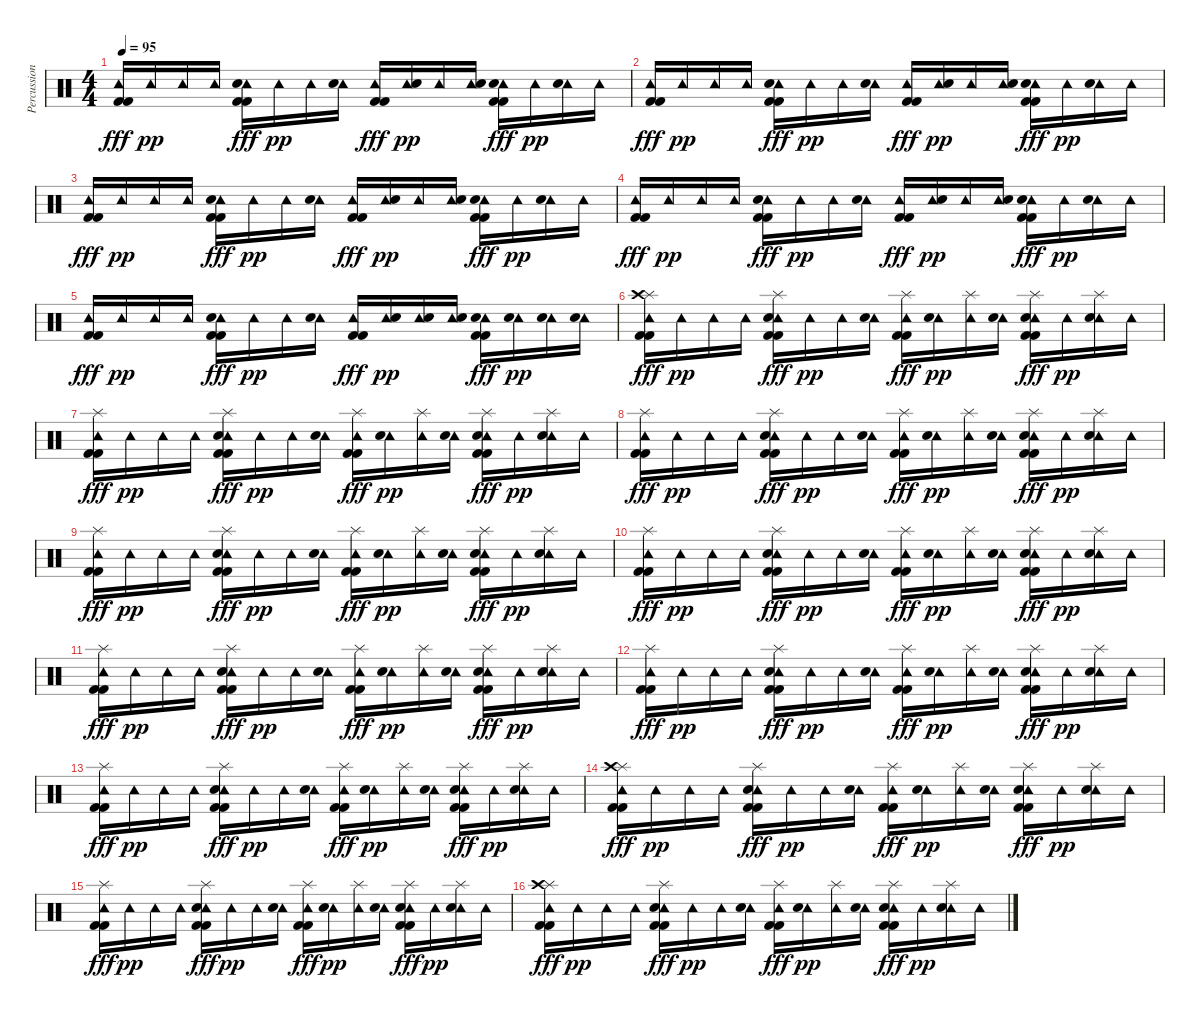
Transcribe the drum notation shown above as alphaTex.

\track ("Percussion" "Percussion") {instrument percussion}
\staff {score}
\articulation defaults
\ts (4 4)
\tempo 95
\clef neutral
\ks c
("Tambourine (hit)" "Kick (hit) 2" "Kick (hit) 2").16{dy fff} "Tambourine (hit)".16{dy pp} "Tambourine (hit)".16 "Tambourine (hit)".16 ("Tambourine (hit)" "Electric Snare (hit)" "Kick (hit) 2" "Kick (hit) 2").16{dy fff} "Tambourine (hit)".16{dy pp} "Tambourine (hit)".16 ("Tambourine (hit)" "Electric Snare (hit)").16 ("Tambourine (hit)" "Kick (hit) 2" "Kick (hit) 2").16{dy fff} ("Tambourine (hit)" "Electric Snare (hit)").16{dy pp} "Tambourine (hit)".16 ("Tambourine (hit)" "Electric Snare (hit)").16 ("Tambourine (hit)" "Electric Snare (hit)" "Kick (hit) 2" "Kick (hit) 2").16{dy fff} "Tambourine (hit)".16{dy pp} ("Tambourine (hit)" "Electric Snare (hit)").16 "Tambourine (hit)".16 |
("Tambourine (hit)" "Kick (hit) 2" "Kick (hit) 2").16{dy fff} "Tambourine (hit)".16{dy pp} "Tambourine (hit)".16 "Tambourine (hit)".16 ("Tambourine (hit)" "Electric Snare (hit)" "Kick (hit) 2" "Kick (hit) 2").16{dy fff} "Tambourine (hit)".16{dy pp} "Tambourine (hit)".16 ("Tambourine (hit)" "Electric Snare (hit)").16 ("Tambourine (hit)" "Kick (hit) 2" "Kick (hit) 2").16{dy fff} ("Tambourine (hit)" "Electric Snare (hit)").16{dy pp} "Tambourine (hit)".16 ("Tambourine (hit)" "Electric Snare (hit)").16 ("Tambourine (hit)" "Electric Snare (hit)" "Kick (hit) 2" "Kick (hit) 2").16{dy fff} "Tambourine (hit)".16{dy pp} ("Tambourine (hit)" "Electric Snare (hit)").16 "Tambourine (hit)".16 |
("Tambourine (hit)" "Kick (hit) 2" "Kick (hit) 2").16{dy fff} "Tambourine (hit)".16{dy pp} "Tambourine (hit)".16 "Tambourine (hit)".16 ("Tambourine (hit)" "Electric Snare (hit)" "Kick (hit) 2" "Kick (hit) 2").16{dy fff} "Tambourine (hit)".16{dy pp} "Tambourine (hit)".16 ("Tambourine (hit)" "Electric Snare (hit)").16 ("Tambourine (hit)" "Kick (hit) 2" "Kick (hit) 2").16{dy fff} ("Tambourine (hit)" "Electric Snare (hit)").16{dy pp} "Tambourine (hit)".16 ("Tambourine (hit)" "Electric Snare (hit)").16 ("Tambourine (hit)" "Electric Snare (hit)" "Kick (hit) 2" "Kick (hit) 2").16{dy fff} "Tambourine (hit)".16{dy pp} ("Tambourine (hit)" "Electric Snare (hit)").16 "Tambourine (hit)".16 |
("Tambourine (hit)" "Kick (hit) 2" "Kick (hit) 2").16{dy fff} "Tambourine (hit)".16{dy pp} "Tambourine (hit)".16 "Tambourine (hit)".16 ("Tambourine (hit)" "Electric Snare (hit)" "Kick (hit) 2" "Kick (hit) 2").16{dy fff} "Tambourine (hit)".16{dy pp} "Tambourine (hit)".16 ("Tambourine (hit)" "Electric Snare (hit)").16 ("Tambourine (hit)" "Kick (hit) 2" "Kick (hit) 2").16{dy fff} ("Tambourine (hit)" "Electric Snare (hit)").16{dy pp} "Tambourine (hit)".16 ("Tambourine (hit)" "Electric Snare (hit)").16 ("Tambourine (hit)" "Electric Snare (hit)" "Kick (hit) 2" "Kick (hit) 2").16{dy fff} "Tambourine (hit)".16{dy pp} ("Tambourine (hit)" "Electric Snare (hit)").16 "Tambourine (hit)".16 |
("Tambourine (hit)" "Kick (hit) 2" "Kick (hit) 2").16{dy fff} "Tambourine (hit)".16{dy pp} "Tambourine (hit)".16 "Tambourine (hit)".16 ("Tambourine (hit)" "Electric Snare (hit)" "Kick (hit) 2" "Kick (hit) 2").16{dy fff} "Tambourine (hit)".16{dy pp} "Tambourine (hit)".16 ("Tambourine (hit)" "Electric Snare (hit)").16 ("Tambourine (hit)" "Kick (hit) 2" "Kick (hit) 2").16{dy fff} ("Tambourine (hit)" "Electric Snare (hit)").16{dy pp} ("Tambourine (hit)" "Electric Snare (hit)").16 ("Tambourine (hit)" "Electric Snare (hit)").16 ("Tambourine (hit)" "Electric Snare (hit)" "Kick (hit) 2" "Kick (hit) 2").16{dy fff} ("Tambourine (hit)" "Electric Snare (hit)").16{dy pp} ("Tambourine (hit)" "Electric Snare (hit)").16 ("Tambourine (hit)" "Electric Snare (hit)").16 |
("Tambourine (hit)" "Splash (hit)" "Crash high (hit)" "Kick (hit) 2" "Kick (hit) 2").16{dy fff} "Tambourine (hit)".16{dy pp} "Tambourine (hit)".16 "Tambourine (hit)".16 ("Tambourine (hit)" "Splash (hit)" "Electric Snare (hit)" "Kick (hit) 2" "Kick (hit) 2").16{dy fff} "Tambourine (hit)".16{dy pp} "Tambourine (hit)".16 ("Tambourine (hit)" "Electric Snare (hit)").16 ("Tambourine (hit)" "Splash (hit)" "Kick (hit) 2" "Kick (hit) 2").16{dy fff} ("Tambourine (hit)" "Electric Snare (hit)").16{dy pp} ("Tambourine (hit)" "Splash (hit)").16 ("Tambourine (hit)" "Electric Snare (hit)").16 ("Tambourine (hit)" "Splash (hit)" "Electric Snare (hit)" "Kick (hit) 2" "Kick (hit) 2").16{dy fff} "Tambourine (hit)".16{dy pp} ("Tambourine (hit)" "Splash (hit)" "Electric Snare (hit)").16 "Tambourine (hit)".16 |
("Tambourine (hit)" "Splash (hit)" "Kick (hit) 2" "Kick (hit) 2").16{dy fff} "Tambourine (hit)".16{dy pp} "Tambourine (hit)".16 "Tambourine (hit)".16 ("Tambourine (hit)" "Splash (hit)" "Electric Snare (hit)" "Kick (hit) 2" "Kick (hit) 2").16{dy fff} "Tambourine (hit)".16{dy pp} "Tambourine (hit)".16 ("Tambourine (hit)" "Electric Snare (hit)").16 ("Tambourine (hit)" "Splash (hit)" "Kick (hit) 2" "Kick (hit) 2").16{dy fff} ("Tambourine (hit)" "Electric Snare (hit)").16{dy pp} ("Tambourine (hit)" "Splash (hit)").16 ("Tambourine (hit)" "Electric Snare (hit)").16 ("Tambourine (hit)" "Splash (hit)" "Electric Snare (hit)" "Kick (hit) 2" "Kick (hit) 2").16{dy fff} "Tambourine (hit)".16{dy pp} ("Tambourine (hit)" "Splash (hit)" "Electric Snare (hit)").16 "Tambourine (hit)".16 |
("Tambourine (hit)" "Splash (hit)" "Kick (hit) 2" "Kick (hit) 2").16{dy fff} "Tambourine (hit)".16{dy pp} "Tambourine (hit)".16 "Tambourine (hit)".16 ("Tambourine (hit)" "Splash (hit)" "Electric Snare (hit)" "Kick (hit) 2" "Kick (hit) 2").16{dy fff} "Tambourine (hit)".16{dy pp} "Tambourine (hit)".16 ("Tambourine (hit)" "Electric Snare (hit)").16 ("Tambourine (hit)" "Splash (hit)" "Kick (hit) 2" "Kick (hit) 2").16{dy fff} ("Tambourine (hit)" "Electric Snare (hit)").16{dy pp} ("Tambourine (hit)" "Splash (hit)").16 ("Tambourine (hit)" "Electric Snare (hit)").16 ("Tambourine (hit)" "Splash (hit)" "Electric Snare (hit)" "Kick (hit) 2" "Kick (hit) 2").16{dy fff} "Tambourine (hit)".16{dy pp} ("Tambourine (hit)" "Splash (hit)" "Electric Snare (hit)").16 "Tambourine (hit)".16 |
("Tambourine (hit)" "Splash (hit)" "Kick (hit) 2" "Kick (hit) 2").16{dy fff} "Tambourine (hit)".16{dy pp} "Tambourine (hit)".16 "Tambourine (hit)".16 ("Tambourine (hit)" "Splash (hit)" "Electric Snare (hit)" "Kick (hit) 2" "Kick (hit) 2").16{dy fff} "Tambourine (hit)".16{dy pp} "Tambourine (hit)".16 ("Tambourine (hit)" "Electric Snare (hit)").16 ("Tambourine (hit)" "Splash (hit)" "Kick (hit) 2" "Kick (hit) 2").16{dy fff} ("Tambourine (hit)" "Electric Snare (hit)").16{dy pp} ("Tambourine (hit)" "Splash (hit)").16 ("Tambourine (hit)" "Electric Snare (hit)").16 ("Tambourine (hit)" "Splash (hit)" "Electric Snare (hit)" "Kick (hit) 2" "Kick (hit) 2").16{dy fff} "Tambourine (hit)".16{dy pp} ("Tambourine (hit)" "Splash (hit)" "Electric Snare (hit)").16 "Tambourine (hit)".16 |
("Tambourine (hit)" "Splash (hit)" "Kick (hit) 2" "Kick (hit) 2").16{dy fff} "Tambourine (hit)".16{dy pp} "Tambourine (hit)".16 "Tambourine (hit)".16 ("Tambourine (hit)" "Splash (hit)" "Electric Snare (hit)" "Kick (hit) 2" "Kick (hit) 2").16{dy fff} "Tambourine (hit)".16{dy pp} "Tambourine (hit)".16 ("Tambourine (hit)" "Electric Snare (hit)").16 ("Tambourine (hit)" "Splash (hit)" "Kick (hit) 2" "Kick (hit) 2").16{dy fff} ("Tambourine (hit)" "Electric Snare (hit)").16{dy pp} ("Tambourine (hit)" "Splash (hit)").16 ("Tambourine (hit)" "Electric Snare (hit)").16 ("Tambourine (hit)" "Splash (hit)" "Electric Snare (hit)" "Kick (hit) 2" "Kick (hit) 2").16{dy fff} "Tambourine (hit)".16{dy pp} ("Tambourine (hit)" "Splash (hit)" "Electric Snare (hit)").16 "Tambourine (hit)".16 |
("Tambourine (hit)" "Splash (hit)" "Kick (hit) 2" "Kick (hit) 2").16{dy fff} "Tambourine (hit)".16{dy pp} "Tambourine (hit)".16 "Tambourine (hit)".16 ("Tambourine (hit)" "Splash (hit)" "Electric Snare (hit)" "Kick (hit) 2" "Kick (hit) 2").16{dy fff} "Tambourine (hit)".16{dy pp} "Tambourine (hit)".16 ("Tambourine (hit)" "Electric Snare (hit)").16 ("Tambourine (hit)" "Splash (hit)" "Kick (hit) 2" "Kick (hit) 2").16{dy fff} ("Tambourine (hit)" "Electric Snare (hit)").16{dy pp} ("Tambourine (hit)" "Splash (hit)").16 ("Tambourine (hit)" "Electric Snare (hit)").16 ("Tambourine (hit)" "Splash (hit)" "Electric Snare (hit)" "Kick (hit) 2" "Kick (hit) 2").16{dy fff} "Tambourine (hit)".16{dy pp} ("Tambourine (hit)" "Splash (hit)" "Electric Snare (hit)").16 "Tambourine (hit)".16 |
("Tambourine (hit)" "Splash (hit)" "Kick (hit) 2" "Kick (hit) 2").16{dy fff} "Tambourine (hit)".16{dy pp} "Tambourine (hit)".16 "Tambourine (hit)".16 ("Tambourine (hit)" "Splash (hit)" "Electric Snare (hit)" "Kick (hit) 2" "Kick (hit) 2").16{dy fff} "Tambourine (hit)".16{dy pp} "Tambourine (hit)".16 ("Tambourine (hit)" "Electric Snare (hit)").16 ("Tambourine (hit)" "Splash (hit)" "Kick (hit) 2" "Kick (hit) 2").16{dy fff} ("Tambourine (hit)" "Electric Snare (hit)").16{dy pp} ("Tambourine (hit)" "Splash (hit)").16 ("Tambourine (hit)" "Electric Snare (hit)").16 ("Tambourine (hit)" "Splash (hit)" "Electric Snare (hit)" "Kick (hit) 2" "Kick (hit) 2").16{dy fff} "Tambourine (hit)".16{dy pp} ("Tambourine (hit)" "Splash (hit)" "Electric Snare (hit)").16 "Tambourine (hit)".16 |
("Tambourine (hit)" "Splash (hit)" "Kick (hit) 2" "Kick (hit) 2").16{dy fff} "Tambourine (hit)".16{dy pp} "Tambourine (hit)".16 "Tambourine (hit)".16 ("Tambourine (hit)" "Splash (hit)" "Electric Snare (hit)" "Kick (hit) 2" "Kick (hit) 2").16{dy fff} "Tambourine (hit)".16{dy pp} "Tambourine (hit)".16 ("Tambourine (hit)" "Electric Snare (hit)").16 ("Tambourine (hit)" "Splash (hit)" "Kick (hit) 2" "Kick (hit) 2").16{dy fff} ("Tambourine (hit)" "Electric Snare (hit)").16{dy pp} ("Tambourine (hit)" "Splash (hit)").16 ("Tambourine (hit)" "Electric Snare (hit)").16 ("Tambourine (hit)" "Splash (hit)" "Electric Snare (hit)" "Kick (hit) 2" "Kick (hit) 2").16{dy fff} "Tambourine (hit)".16{dy pp} ("Tambourine (hit)" "Splash (hit)" "Electric Snare (hit)").16 "Tambourine (hit)".16 |
("Tambourine (hit)" "Splash (hit)" "Crash high (hit)" "Kick (hit) 2" "Kick (hit) 2").16{dy fff} "Tambourine (hit)".16{dy pp} "Tambourine (hit)".16 "Tambourine (hit)".16 ("Tambourine (hit)" "Splash (hit)" "Electric Snare (hit)" "Kick (hit) 2" "Kick (hit) 2").16{dy fff} "Tambourine (hit)".16{dy pp} "Tambourine (hit)".16 ("Tambourine (hit)" "Electric Snare (hit)").16 ("Tambourine (hit)" "Splash (hit)" "Kick (hit) 2" "Kick (hit) 2").16{dy fff} ("Tambourine (hit)" "Electric Snare (hit)").16{dy pp} ("Tambourine (hit)" "Splash (hit)").16 ("Tambourine (hit)" "Electric Snare (hit)").16 ("Tambourine (hit)" "Splash (hit)" "Electric Snare (hit)" "Kick (hit) 2" "Kick (hit) 2").16{dy fff} "Tambourine (hit)".16{dy pp} ("Tambourine (hit)" "Splash (hit)" "Electric Snare (hit)").16 "Tambourine (hit)".16 |
("Tambourine (hit)" "Splash (hit)" "Kick (hit) 2" "Kick (hit) 2").16{dy fff} "Tambourine (hit)".16{dy pp} "Tambourine (hit)".16 "Tambourine (hit)".16 ("Tambourine (hit)" "Splash (hit)" "Electric Snare (hit)" "Kick (hit) 2" "Kick (hit) 2").16{dy fff} "Tambourine (hit)".16{dy pp} "Tambourine (hit)".16 ("Tambourine (hit)" "Electric Snare (hit)").16 ("Tambourine (hit)" "Splash (hit)" "Kick (hit) 2" "Kick (hit) 2").16{dy fff} ("Tambourine (hit)" "Electric Snare (hit)").16{dy pp} ("Tambourine (hit)" "Splash (hit)").16 ("Tambourine (hit)" "Electric Snare (hit)").16 ("Tambourine (hit)" "Splash (hit)" "Electric Snare (hit)" "Kick (hit) 2" "Kick (hit) 2").16{dy fff} "Tambourine (hit)".16{dy pp} ("Tambourine (hit)" "Splash (hit)" "Electric Snare (hit)").16 "Tambourine (hit)".16 |
("Tambourine (hit)" "Splash (hit)" "Crash high (hit)" "Kick (hit) 2" "Kick (hit) 2").16{dy fff} "Tambourine (hit)".16{dy pp} "Tambourine (hit)".16 "Tambourine (hit)".16 ("Tambourine (hit)" "Splash (hit)" "Electric Snare (hit)" "Kick (hit) 2" "Kick (hit) 2").16{dy fff} "Tambourine (hit)".16{dy pp} "Tambourine (hit)".16 ("Tambourine (hit)" "Electric Snare (hit)").16 ("Tambourine (hit)" "Splash (hit)" "Kick (hit) 2" "Kick (hit) 2").16{dy fff} ("Tambourine (hit)" "Electric Snare (hit)").16{dy pp} ("Tambourine (hit)" "Splash (hit)").16 ("Tambourine (hit)" "Electric Snare (hit)").16 ("Tambourine (hit)" "Splash (hit)" "Electric Snare (hit)" "Kick (hit) 2" "Kick (hit) 2").16{dy fff} "Tambourine (hit)".16{dy pp} ("Tambourine (hit)" "Splash (hit)" "Electric Snare (hit)").16 "Tambourine (hit)".16
